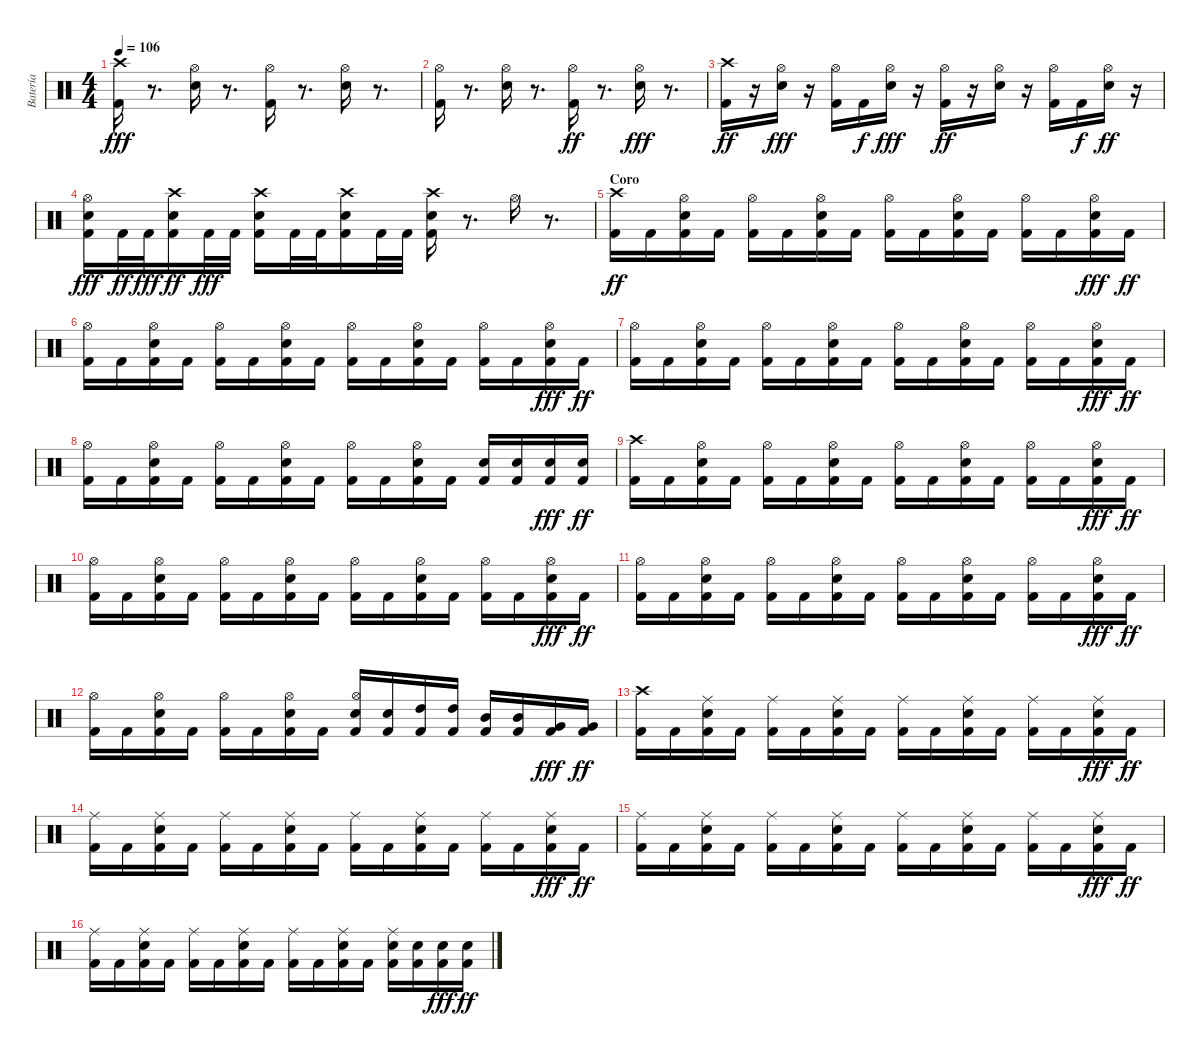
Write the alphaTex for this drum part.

\track ("Batería" "Batería") {instrument percussion}
\staff {score}
\articulation defaults
\ts (4 4)
\tempo 106
\clef neutral
\ks c
("Crash high (hit)" "Kick (hit) 2").16{dy fff} r.8{d} ("Hi-Hat (open)" "Electric Snare (hit)").16 r.8{d} ("Hi-Hat (open)" "Kick (hit) 2").16 r.8{d} ("Hi-Hat (open)" "Electric Snare (hit)").16 r.8{d} |
("Hi-Hat (open)" "Kick (hit) 2").16 r.8{d} ("Hi-Hat (open)" "Electric Snare (hit)").16 r.8{d} ("Hi-Hat (open)" "Kick (hit) 2").16{dy ff} r.8{d} ("Hi-Hat (open)" "Electric Snare (hit)").16{dy fff} r.8{d} |
("Crash high (hit)" "Kick (hit) 2").16{dy ff} r.16 ("Hi-Hat (open)" "Electric Snare (hit)").16{dy fff} r.16 ("Hi-Hat (open)" "Kick (hit) 2").16 "Kick (hit) 2".16{dy f} ("Hi-Hat (open)" "Electric Snare (hit)").16{dy fff} r.16 ("Hi-Hat (open)" "Kick (hit) 2").16{dy ff} r.16 ("Hi-Hat (open)" "Electric Snare (hit)").16 r.16 ("Hi-Hat (open)" "Kick (hit) 2").16 "Kick (hit) 2".16{dy f} ("Hi-Hat (open)" "Electric Snare (hit)").16{dy ff} r.16 |
("Hi-Hat (open)" "Electric Snare (hit)" "Kick (hit) 2").16{dy fff} "Kick (hit) 2".32{dy ff} "Kick (hit) 2".32{dy fff} ("Crash high (hit)" "Electric Snare (hit)" "Kick (hit) 2").16{dy ff} "Kick (hit) 2".32{dy fff} "Kick (hit) 2".32 ("Crash high (hit)" "Electric Snare (hit)" "Kick (hit) 2").16 "Kick (hit) 2".32 "Kick (hit) 2".32 ("Crash high (hit)" "Electric Snare (hit)" "Kick (hit) 2").16 "Kick (hit) 2".32 "Kick (hit) 2".32 ("Crash high (hit)" "Electric Snare (hit)" "Kick (hit) 2").16 r.8{d} "Hi-Hat (open)".16 r.8{d} |
\section ("" "Coro")
("Crash high (hit)" "Kick (hit) 2").16{dy ff} "Kick (hit) 2".16 ("Hi-Hat (open)" "Electric Snare (hit)" "Kick (hit) 2").16 "Kick (hit) 2".16 ("Hi-Hat (open)" "Kick (hit) 2").16 "Kick (hit) 2".16 ("Hi-Hat (open)" "Electric Snare (hit)" "Kick (hit) 2").16 "Kick (hit) 2".16 ("Hi-Hat (open)" "Kick (hit) 2").16 "Kick (hit) 2".16 ("Hi-Hat (open)" "Electric Snare (hit)" "Kick (hit) 2").16 "Kick (hit) 2".16 ("Hi-Hat (open)" "Kick (hit) 2").16 "Kick (hit) 2".16 ("Hi-Hat (open)" "Electric Snare (hit)" "Kick (hit) 2").16{dy fff} "Kick (hit) 2".16{dy ff} |
("Hi-Hat (open)" "Kick (hit) 2").16 "Kick (hit) 2".16 ("Hi-Hat (open)" "Electric Snare (hit)" "Kick (hit) 2").16 "Kick (hit) 2".16 ("Hi-Hat (open)" "Kick (hit) 2").16 "Kick (hit) 2".16 ("Hi-Hat (open)" "Electric Snare (hit)" "Kick (hit) 2").16 "Kick (hit) 2".16 ("Hi-Hat (open)" "Kick (hit) 2").16 "Kick (hit) 2".16 ("Hi-Hat (open)" "Electric Snare (hit)" "Kick (hit) 2").16 "Kick (hit) 2".16 ("Hi-Hat (open)" "Kick (hit) 2").16 "Kick (hit) 2".16 ("Hi-Hat (open)" "Electric Snare (hit)" "Kick (hit) 2").16{dy fff} "Kick (hit) 2".16{dy ff} |
("Hi-Hat (open)" "Kick (hit) 2").16 "Kick (hit) 2".16 ("Hi-Hat (open)" "Electric Snare (hit)" "Kick (hit) 2").16 "Kick (hit) 2".16 ("Hi-Hat (open)" "Kick (hit) 2").16 "Kick (hit) 2".16 ("Hi-Hat (open)" "Electric Snare (hit)" "Kick (hit) 2").16 "Kick (hit) 2".16 ("Hi-Hat (open)" "Kick (hit) 2").16 "Kick (hit) 2".16 ("Hi-Hat (open)" "Electric Snare (hit)" "Kick (hit) 2").16 "Kick (hit) 2".16 ("Hi-Hat (open)" "Kick (hit) 2").16 "Kick (hit) 2".16 ("Hi-Hat (open)" "Electric Snare (hit)" "Kick (hit) 2").16{dy fff} "Kick (hit) 2".16{dy ff} |
("Hi-Hat (open)" "Kick (hit) 2").16 "Kick (hit) 2".16 ("Hi-Hat (open)" "Electric Snare (hit)" "Kick (hit) 2").16 "Kick (hit) 2".16 ("Hi-Hat (open)" "Kick (hit) 2").16 "Kick (hit) 2".16 ("Hi-Hat (open)" "Electric Snare (hit)" "Kick (hit) 2").16 "Kick (hit) 2".16 ("Hi-Hat (open)" "Kick (hit) 2").16 "Kick (hit) 2".16 ("Hi-Hat (open)" "Electric Snare (hit)" "Kick (hit) 2").16 "Kick (hit) 2".16 ("Electric Snare (hit)" "Kick (hit) 2").16 ("Electric Snare (hit)" "Kick (hit) 2").16 ("Electric Snare (hit)" "Kick (hit) 2").16{dy fff} ("Electric Snare (hit)" "Kick (hit) 2").16{dy ff} |
("Crash high (hit)" "Kick (hit) 2").16 "Kick (hit) 2".16 ("Hi-Hat (open)" "Electric Snare (hit)" "Kick (hit) 2").16 "Kick (hit) 2".16 ("Hi-Hat (open)" "Kick (hit) 2").16 "Kick (hit) 2".16 ("Hi-Hat (open)" "Electric Snare (hit)" "Kick (hit) 2").16 "Kick (hit) 2".16 ("Hi-Hat (open)" "Kick (hit) 2").16 "Kick (hit) 2".16 ("Hi-Hat (open)" "Electric Snare (hit)" "Kick (hit) 2").16 "Kick (hit) 2".16 ("Hi-Hat (open)" "Kick (hit) 2").16 "Kick (hit) 2".16 ("Hi-Hat (open)" "Electric Snare (hit)" "Kick (hit) 2").16{dy fff} "Kick (hit) 2".16{dy ff} |
("Hi-Hat (open)" "Kick (hit) 2").16 "Kick (hit) 2".16 ("Hi-Hat (open)" "Electric Snare (hit)" "Kick (hit) 2").16 "Kick (hit) 2".16 ("Hi-Hat (open)" "Kick (hit) 2").16 "Kick (hit) 2".16 ("Hi-Hat (open)" "Electric Snare (hit)" "Kick (hit) 2").16 "Kick (hit) 2".16 ("Hi-Hat (open)" "Kick (hit) 2").16 "Kick (hit) 2".16 ("Hi-Hat (open)" "Electric Snare (hit)" "Kick (hit) 2").16 "Kick (hit) 2".16 ("Hi-Hat (open)" "Kick (hit) 2").16 "Kick (hit) 2".16 ("Hi-Hat (open)" "Electric Snare (hit)" "Kick (hit) 2").16{dy fff} "Kick (hit) 2".16{dy ff} |
("Hi-Hat (open)" "Kick (hit) 2").16 "Kick (hit) 2".16 ("Hi-Hat (open)" "Electric Snare (hit)" "Kick (hit) 2").16 "Kick (hit) 2".16 ("Hi-Hat (open)" "Kick (hit) 2").16 "Kick (hit) 2".16 ("Hi-Hat (open)" "Electric Snare (hit)" "Kick (hit) 2").16 "Kick (hit) 2".16 ("Hi-Hat (open)" "Kick (hit) 2").16 "Kick (hit) 2".16 ("Hi-Hat (open)" "Electric Snare (hit)" "Kick (hit) 2").16 "Kick (hit) 2".16 ("Hi-Hat (open)" "Kick (hit) 2").16 "Kick (hit) 2".16 ("Hi-Hat (open)" "Electric Snare (hit)" "Kick (hit) 2").16{dy fff} "Kick (hit) 2".16{dy ff} |
("Hi-Hat (open)" "Kick (hit) 2").16 "Kick (hit) 2".16 ("Hi-Hat (open)" "Electric Snare (hit)" "Kick (hit) 2").16 "Kick (hit) 2".16 ("Hi-Hat (open)" "Kick (hit) 2").16 "Kick (hit) 2".16 ("Hi-Hat (open)" "Electric Snare (hit)" "Kick (hit) 2").16 "Kick (hit) 2".16 ("Hi-Hat (open)" "Electric Snare (hit)" "Kick (hit) 2").16 ("Electric Snare (hit)" "Kick (hit) 2").16 ("High Tom (hit)" "Kick (hit) 2").16 ("High Tom (hit)" "Kick (hit) 2").16 ("Mid Tom (hit)" "Kick (hit) 2").16 ("Mid Tom (hit)" "Kick (hit) 2").16 ("Very Low Tom (hit)" "Kick (hit) 2").16{dy fff} ("Very Low Tom (hit)" "Kick (hit) 2").16{dy ff} |
("Crash high (hit)" "Kick (hit) 2").16 "Kick (hit) 2".16 ("Ride (middle)" "Electric Snare (hit)" "Kick (hit) 2").16 "Kick (hit) 2".16 ("Ride (middle)" "Kick (hit) 2").16 "Kick (hit) 2".16 ("Ride (middle)" "Electric Snare (hit)" "Kick (hit) 2").16 "Kick (hit) 2".16 ("Ride (middle)" "Kick (hit) 2").16 "Kick (hit) 2".16 ("Ride (middle)" "Electric Snare (hit)" "Kick (hit) 2").16 "Kick (hit) 2".16 ("Ride (middle)" "Kick (hit) 2").16 "Kick (hit) 2".16 ("Ride (middle)" "Electric Snare (hit)" "Kick (hit) 2").16{dy fff} "Kick (hit) 2".16{dy ff} |
("Ride (middle)" "Kick (hit) 2").16 "Kick (hit) 2".16 ("Ride (middle)" "Electric Snare (hit)" "Kick (hit) 2").16 "Kick (hit) 2".16 ("Ride (middle)" "Kick (hit) 2").16 "Kick (hit) 2".16 ("Ride (middle)" "Electric Snare (hit)" "Kick (hit) 2").16 "Kick (hit) 2".16 ("Ride (middle)" "Kick (hit) 2").16 "Kick (hit) 2".16 ("Ride (middle)" "Electric Snare (hit)" "Kick (hit) 2").16 "Kick (hit) 2".16 ("Ride (middle)" "Kick (hit) 2").16 "Kick (hit) 2".16 ("Ride (middle)" "Electric Snare (hit)" "Kick (hit) 2").16{dy fff} "Kick (hit) 2".16{dy ff} |
("Ride (middle)" "Kick (hit) 2").16 "Kick (hit) 2".16 ("Ride (middle)" "Electric Snare (hit)" "Kick (hit) 2").16 "Kick (hit) 2".16 ("Ride (middle)" "Kick (hit) 2").16 "Kick (hit) 2".16 ("Ride (middle)" "Electric Snare (hit)" "Kick (hit) 2").16 "Kick (hit) 2".16 ("Ride (middle)" "Kick (hit) 2").16 "Kick (hit) 2".16 ("Ride (middle)" "Electric Snare (hit)" "Kick (hit) 2").16 "Kick (hit) 2".16 ("Ride (middle)" "Kick (hit) 2").16 "Kick (hit) 2".16 ("Ride (middle)" "Electric Snare (hit)" "Kick (hit) 2").16{dy fff} "Kick (hit) 2".16{dy ff} |
("Ride (middle)" "Kick (hit) 2").16 "Kick (hit) 2".16 ("Ride (middle)" "Electric Snare (hit)" "Kick (hit) 2").16 "Kick (hit) 2".16 ("Ride (middle)" "Kick (hit) 2").16 "Kick (hit) 2".16 ("Ride (middle)" "Electric Snare (hit)" "Kick (hit) 2").16 "Kick (hit) 2".16 ("Ride (middle)" "Kick (hit) 2").16 "Kick (hit) 2".16 ("Ride (middle)" "Electric Snare (hit)" "Kick (hit) 2").16 "Kick (hit) 2".16 ("Ride (middle)" "Electric Snare (hit)" "Kick (hit) 2").16 ("Electric Snare (hit)" "Kick (hit) 2").16 ("Electric Snare (hit)" "Kick (hit) 2").16{dy fff} ("Electric Snare (hit)" "Kick (hit) 2").16{dy ff}
